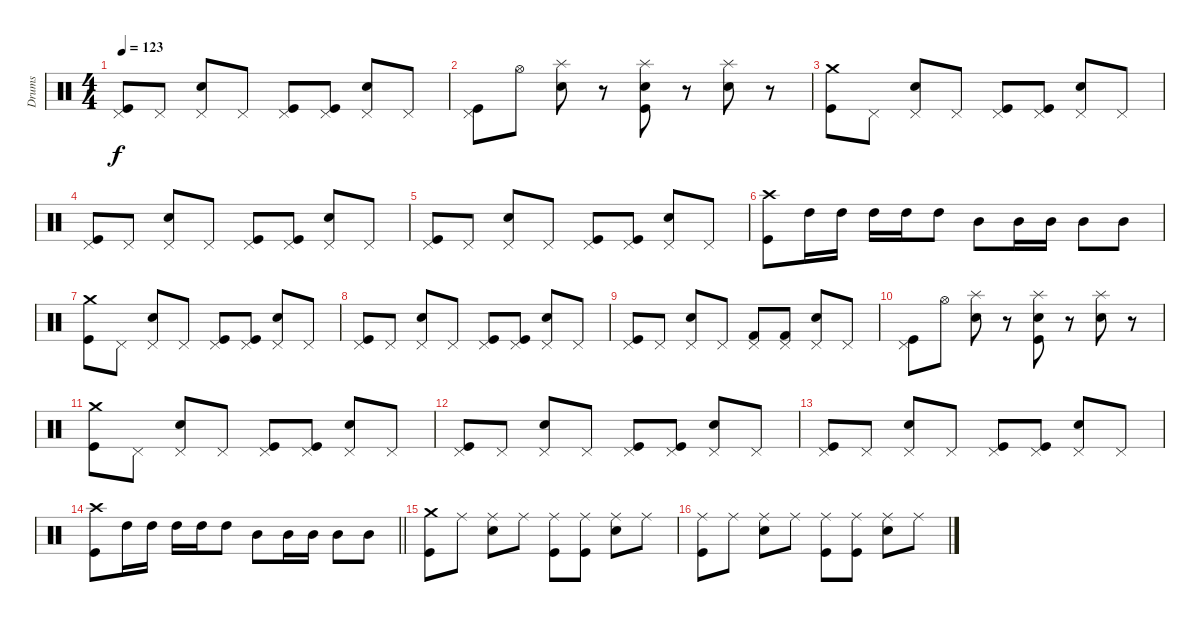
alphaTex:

\track ("Drums" "Drums") {instrument percussion}
\staff {score}
\articulation defaults
\ts (4 4)
\tempo 123
\clef neutral
\ks c
("Pedal Hi-Hat (hit)" "Kick (hit)").8{dy f} "Pedal Hi-Hat (hit)".8 ("Pedal Hi-Hat (hit)" "Electric Snare (hit)").8 "Pedal Hi-Hat (hit)".8 ("Pedal Hi-Hat (hit)" "Kick (hit)").8 ("Pedal Hi-Hat (hit)" "Kick (hit)").8 ("Pedal Hi-Hat (hit)" "Electric Snare (hit)").8 "Pedal Hi-Hat (hit)".8 |
("Pedal Hi-Hat (hit)" "Kick (hit)").8 "Hi-Hat (open)".8 ("Splash (hit)" "Electric Snare (hit)").8 r.8 ("Splash (hit)" "Electric Snare (hit)" "Kick (hit)").8 r.8 ("Splash (hit)" "Electric Snare (hit)").8 r.8 |
("Crash medium (hit)" "Kick (hit)").8 "Pedal Hi-Hat (hit)".8 ("Pedal Hi-Hat (hit)" "Electric Snare (hit)").8 "Pedal Hi-Hat (hit)".8 ("Pedal Hi-Hat (hit)" "Kick (hit)").8 ("Pedal Hi-Hat (hit)" "Kick (hit)").8 ("Pedal Hi-Hat (hit)" "Electric Snare (hit)").8 "Pedal Hi-Hat (hit)".8 |
("Pedal Hi-Hat (hit)" "Kick (hit)").8 "Pedal Hi-Hat (hit)".8 ("Pedal Hi-Hat (hit)" "Electric Snare (hit)").8 "Pedal Hi-Hat (hit)".8 ("Pedal Hi-Hat (hit)" "Kick (hit)").8 ("Pedal Hi-Hat (hit)" "Kick (hit)").8 ("Pedal Hi-Hat (hit)" "Electric Snare (hit)").8 "Pedal Hi-Hat (hit)".8 |
("Pedal Hi-Hat (hit)" "Kick (hit)").8 "Pedal Hi-Hat (hit)".8 ("Pedal Hi-Hat (hit)" "Electric Snare (hit)").8 "Pedal Hi-Hat (hit)".8 ("Pedal Hi-Hat (hit)" "Kick (hit)").8 ("Pedal Hi-Hat (hit)" "Kick (hit)").8 ("Pedal Hi-Hat (hit)" "Electric Snare (hit)").8 "Pedal Hi-Hat (hit)".8 |
("Crash high (hit)" "Kick (hit)").8 "High Tom (hit)".16 "High Tom (hit)".16 "High Tom (hit)".16 "High Tom (hit)".16 "High Tom (hit)".8 "Mid Tom (hit)".8 "Mid Tom (hit)".16 "Mid Tom (hit)".16 "Mid Tom (hit)".8 "Mid Tom (hit)".8 |
("Crash medium (hit)" "Kick (hit)").8 "Pedal Hi-Hat (hit)".8 ("Pedal Hi-Hat (hit)" "Electric Snare (hit)").8 "Pedal Hi-Hat (hit)".8 ("Pedal Hi-Hat (hit)" "Kick (hit)").8 ("Pedal Hi-Hat (hit)" "Kick (hit)").8 ("Pedal Hi-Hat (hit)" "Electric Snare (hit)").8 "Pedal Hi-Hat (hit)".8 |
("Pedal Hi-Hat (hit)" "Kick (hit)").8 "Pedal Hi-Hat (hit)".8 ("Pedal Hi-Hat (hit)" "Electric Snare (hit)").8 "Pedal Hi-Hat (hit)".8 ("Pedal Hi-Hat (hit)" "Kick (hit)").8 ("Pedal Hi-Hat (hit)" "Kick (hit)").8 ("Pedal Hi-Hat (hit)" "Electric Snare (hit)").8 "Pedal Hi-Hat (hit)".8 |
("Pedal Hi-Hat (hit)" "Kick (hit)").8 "Pedal Hi-Hat (hit)".8 ("Pedal Hi-Hat (hit)" "Electric Snare (hit)").8 "Pedal Hi-Hat (hit)".8 ("Pedal Hi-Hat (hit)" "Kick (hit) 2").8 ("Pedal Hi-Hat (hit)" "Kick (hit) 2").8 ("Pedal Hi-Hat (hit)" "Electric Snare (hit)").8 "Pedal Hi-Hat (hit)".8 |
("Pedal Hi-Hat (hit)" "Kick (hit)").8 "Hi-Hat (open)".8 ("Splash (hit)" "Electric Snare (hit)").8 r.8 ("Splash (hit)" "Electric Snare (hit)" "Kick (hit)").8 r.8 ("Splash (hit)" "Electric Snare (hit)").8 r.8 |
("Crash medium (hit)" "Kick (hit)").8 "Pedal Hi-Hat (hit)".8 ("Pedal Hi-Hat (hit)" "Electric Snare (hit)").8 "Pedal Hi-Hat (hit)".8 ("Pedal Hi-Hat (hit)" "Kick (hit)").8 ("Pedal Hi-Hat (hit)" "Kick (hit)").8 ("Pedal Hi-Hat (hit)" "Electric Snare (hit)").8 "Pedal Hi-Hat (hit)".8 |
("Pedal Hi-Hat (hit)" "Kick (hit)").8 "Pedal Hi-Hat (hit)".8 ("Pedal Hi-Hat (hit)" "Electric Snare (hit)").8 "Pedal Hi-Hat (hit)".8 ("Pedal Hi-Hat (hit)" "Kick (hit)").8 ("Pedal Hi-Hat (hit)" "Kick (hit)").8 ("Pedal Hi-Hat (hit)" "Electric Snare (hit)").8 "Pedal Hi-Hat (hit)".8 |
("Pedal Hi-Hat (hit)" "Kick (hit)").8 "Pedal Hi-Hat (hit)".8 ("Pedal Hi-Hat (hit)" "Electric Snare (hit)").8 "Pedal Hi-Hat (hit)".8 ("Pedal Hi-Hat (hit)" "Kick (hit)").8 ("Pedal Hi-Hat (hit)" "Kick (hit)").8 ("Pedal Hi-Hat (hit)" "Electric Snare (hit)").8 "Pedal Hi-Hat (hit)".8 |
\barLineRight lightlight
("Crash high (hit)" "Kick (hit)").8 "High Tom (hit)".16 "High Tom (hit)".16 "High Tom (hit)".16 "High Tom (hit)".16 "High Tom (hit)".8 "Mid Tom (hit)".8 "Mid Tom (hit)".16 "Mid Tom (hit)".16 "Mid Tom (hit)".8 "Mid Tom (hit)".8 |
("Crash medium (hit)" "Kick (hit)").8 "Ride (middle)".8 ("Ride (middle)" "Electric Snare (hit)").8 "Ride (middle)".8 ("Ride (middle)" "Kick (hit)").8 ("Ride (middle)" "Kick (hit)").8 ("Ride (middle)" "Electric Snare (hit)").8 "Ride (middle)".8 |
("Ride (middle)" "Kick (hit)").8 "Ride (middle)".8 ("Ride (middle)" "Electric Snare (hit)").8 "Ride (middle)".8 ("Ride (middle)" "Kick (hit)").8 ("Ride (middle)" "Kick (hit)").8 ("Ride (middle)" "Electric Snare (hit)").8 "Ride (middle)".8
